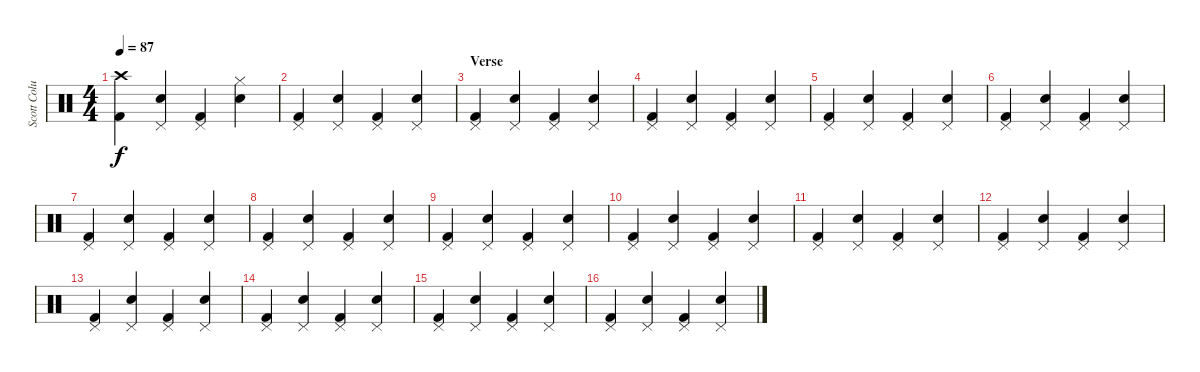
\track ("Scott Columbus" "Scott Colu") {instrument percussion}
\staff {score}
\articulation defaults
\ts (4 4)
\tempo 87
\clef neutral
\ks c
("Crash high (hit)" "Kick (hit) 2").4{dy f} ("Snare (hit) 2" "Pedal Hi-Hat (hit)").4 ("Pedal Hi-Hat (hit)" "Kick (hit) 2").4 ("Snare (hit) 2" "Hi-Hat (closed)").4 |
("Pedal Hi-Hat (hit)" "Kick (hit) 2").4 ("Snare (hit) 2" "Pedal Hi-Hat (hit)").4 ("Pedal Hi-Hat (hit)" "Kick (hit) 2").4 ("Snare (hit) 2" "Pedal Hi-Hat (hit)").4 |
\section ("" "Verse")
("Pedal Hi-Hat (hit)" "Kick (hit) 2").4 ("Snare (hit) 2" "Pedal Hi-Hat (hit)").4 ("Pedal Hi-Hat (hit)" "Kick (hit) 2").4 ("Snare (hit) 2" "Pedal Hi-Hat (hit)").4 |
("Pedal Hi-Hat (hit)" "Kick (hit) 2").4 ("Snare (hit) 2" "Pedal Hi-Hat (hit)").4 ("Pedal Hi-Hat (hit)" "Kick (hit) 2").4 ("Snare (hit) 2" "Pedal Hi-Hat (hit)").4 |
("Pedal Hi-Hat (hit)" "Kick (hit) 2").4 ("Snare (hit) 2" "Pedal Hi-Hat (hit)").4 ("Pedal Hi-Hat (hit)" "Kick (hit) 2").4 ("Snare (hit) 2" "Pedal Hi-Hat (hit)").4 |
("Pedal Hi-Hat (hit)" "Kick (hit) 2").4 ("Snare (hit) 2" "Pedal Hi-Hat (hit)").4 ("Pedal Hi-Hat (hit)" "Kick (hit) 2").4 ("Snare (hit) 2" "Pedal Hi-Hat (hit)").4 |
("Pedal Hi-Hat (hit)" "Kick (hit) 2").4 ("Snare (hit) 2" "Pedal Hi-Hat (hit)").4 ("Pedal Hi-Hat (hit)" "Kick (hit) 2").4 ("Snare (hit) 2" "Pedal Hi-Hat (hit)").4 |
("Pedal Hi-Hat (hit)" "Kick (hit) 2").4 ("Snare (hit) 2" "Pedal Hi-Hat (hit)").4 ("Pedal Hi-Hat (hit)" "Kick (hit) 2").4 ("Snare (hit) 2" "Pedal Hi-Hat (hit)").4 |
("Pedal Hi-Hat (hit)" "Kick (hit) 2").4 ("Snare (hit) 2" "Pedal Hi-Hat (hit)").4 ("Pedal Hi-Hat (hit)" "Kick (hit) 2").4 ("Snare (hit) 2" "Pedal Hi-Hat (hit)").4 |
("Pedal Hi-Hat (hit)" "Kick (hit) 2").4 ("Snare (hit) 2" "Pedal Hi-Hat (hit)").4 ("Pedal Hi-Hat (hit)" "Kick (hit) 2").4 ("Snare (hit) 2" "Pedal Hi-Hat (hit)").4 |
("Pedal Hi-Hat (hit)" "Kick (hit) 2").4 ("Snare (hit) 2" "Pedal Hi-Hat (hit)").4 ("Pedal Hi-Hat (hit)" "Kick (hit) 2").4 ("Snare (hit) 2" "Pedal Hi-Hat (hit)").4 |
("Pedal Hi-Hat (hit)" "Kick (hit) 2").4 ("Snare (hit) 2" "Pedal Hi-Hat (hit)").4 ("Pedal Hi-Hat (hit)" "Kick (hit) 2").4 ("Snare (hit) 2" "Pedal Hi-Hat (hit)").4 |
("Pedal Hi-Hat (hit)" "Kick (hit) 2").4 ("Snare (hit) 2" "Pedal Hi-Hat (hit)").4 ("Pedal Hi-Hat (hit)" "Kick (hit) 2").4 ("Snare (hit) 2" "Pedal Hi-Hat (hit)").4 |
("Pedal Hi-Hat (hit)" "Kick (hit) 2").4 ("Snare (hit) 2" "Pedal Hi-Hat (hit)").4 ("Pedal Hi-Hat (hit)" "Kick (hit) 2").4 ("Snare (hit) 2" "Pedal Hi-Hat (hit)").4 |
("Pedal Hi-Hat (hit)" "Kick (hit) 2").4 ("Snare (hit) 2" "Pedal Hi-Hat (hit)").4 ("Pedal Hi-Hat (hit)" "Kick (hit) 2").4 ("Snare (hit) 2" "Pedal Hi-Hat (hit)").4 |
("Pedal Hi-Hat (hit)" "Kick (hit) 2").4 ("Snare (hit) 2" "Pedal Hi-Hat (hit)").4 ("Pedal Hi-Hat (hit)" "Kick (hit) 2").4 ("Snare (hit) 2" "Pedal Hi-Hat (hit)").4
